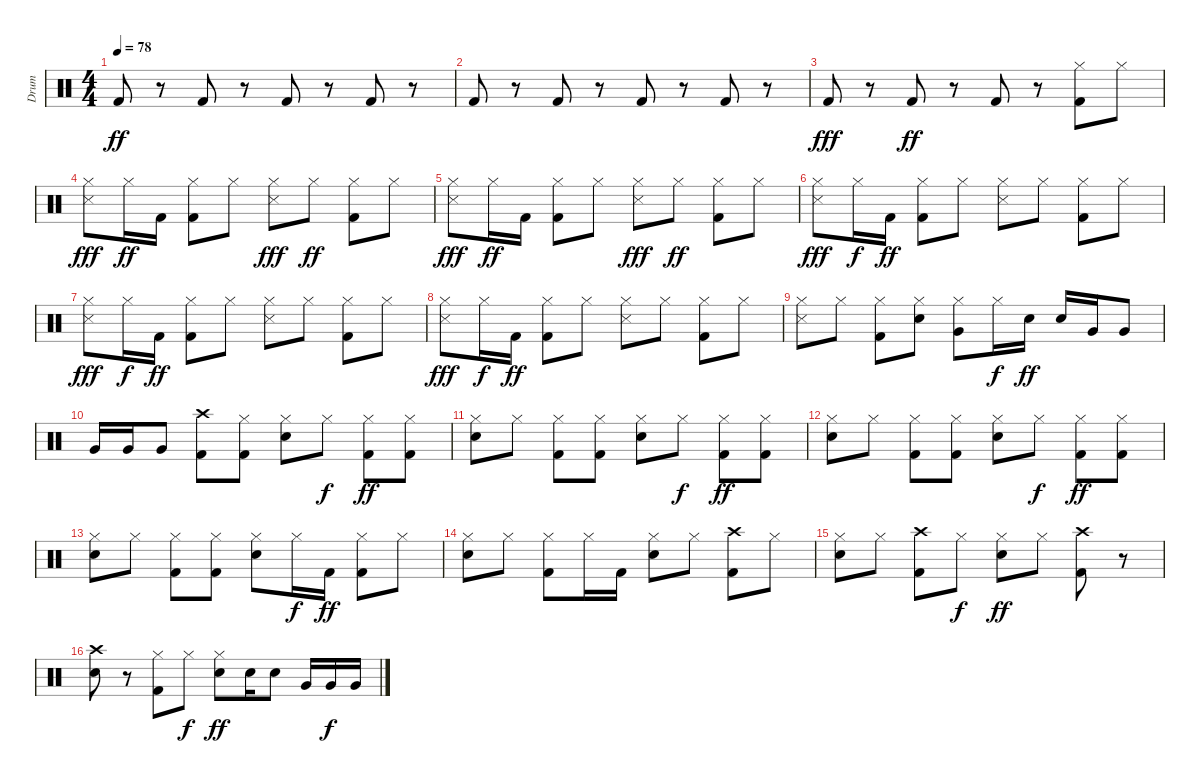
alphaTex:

\track ("Drum" "Drum") {instrument percussion}
\staff {score}
\articulation defaults
\ts (4 4)
\tempo 78
\clef neutral
\ks c "Kick (hit) 2".8{dy ff}
r.8 "Kick (hit) 2".8 r.8 "Kick (hit) 2".8 r.8 "Kick (hit) 2".8 r.8 |
"Kick (hit) 2".8 r.8 "Kick (hit) 2".8 r.8 "Kick (hit) 2".8 r.8 "Kick (hit) 2".8 r.8 |
"Kick (hit) 2".8{dy fff} r.8 "Kick (hit) 2".8{dy ff} r.8 "Kick (hit) 2".8 r.8 ("Kick (hit) 2" "Hi-Hat (closed)").8 "Hi-Hat (closed)".8 |
("Snare (side stick) 3" "Hi-Hat (closed)").8{dy fff} "Hi-Hat (closed)".16{dy ff} "Kick (hit) 2".16 ("Kick (hit) 2" "Hi-Hat (closed)").8 "Hi-Hat (closed)".8 ("Snare (side stick) 3" "Hi-Hat (closed)").8{dy fff} "Hi-Hat (closed)".8{dy ff} ("Kick (hit) 2" "Hi-Hat (closed)").8 "Hi-Hat (closed)".8 |
("Snare (side stick) 3" "Hi-Hat (closed)").8{dy fff} "Hi-Hat (closed)".16{dy ff} "Kick (hit) 2".16 ("Kick (hit) 2" "Hi-Hat (closed)").8 "Hi-Hat (closed)".8 ("Snare (side stick) 3" "Hi-Hat (closed)").8{dy fff} "Hi-Hat (closed)".8{dy ff} ("Kick (hit) 2" "Hi-Hat (closed)").8 "Hi-Hat (closed)".8 |
("Snare (side stick) 3" "Hi-Hat (closed)").8{dy fff} "Hi-Hat (closed)".16{dy f} "Kick (hit) 2".16{dy ff} ("Kick (hit) 2" "Hi-Hat (closed)").8 "Hi-Hat (closed)".8 ("Snare (side stick) 3" "Hi-Hat (closed)").8 "Hi-Hat (closed)".8 ("Kick (hit) 2" "Hi-Hat (closed)").8 "Hi-Hat (closed)".8 |
("Snare (side stick) 3" "Hi-Hat (closed)").8{dy fff} "Hi-Hat (closed)".16{dy f} "Kick (hit) 2".16{dy ff} ("Kick (hit) 2" "Hi-Hat (closed)").8 "Hi-Hat (closed)".8 ("Snare (side stick) 3" "Hi-Hat (closed)").8 "Hi-Hat (closed)".8 ("Kick (hit) 2" "Hi-Hat (closed)").8 "Hi-Hat (closed)".8 |
("Snare (side stick) 3" "Hi-Hat (closed)").8{dy fff} "Hi-Hat (closed)".16{dy f} "Kick (hit) 2".16{dy ff} ("Kick (hit) 2" "Hi-Hat (closed)").8 "Hi-Hat (closed)".8 ("Snare (side stick) 3" "Hi-Hat (closed)").8 "Hi-Hat (closed)".8 ("Kick (hit) 2" "Hi-Hat (closed)").8 "Hi-Hat (closed)".8 |
("Hi-Hat (closed)" "Snare (side stick) 3").8 "Hi-Hat (closed)".8 ("Kick (hit) 2" "Hi-Hat (closed)").8 ("Snare (hit) 2" "Hi-Hat (closed)").8 ("Hi-Hat (closed)" "Very Low Tom (hit)").8 "Hi-Hat (closed)".16{dy f} "Snare (hit) 2".16{dy ff} "Snare (hit) 2".16 "Very Low Tom (hit)".16 "Very Low Tom (hit)".8 |
"Very Low Tom (hit)".16 "Very Low Tom (hit)".16 "Very Low Tom (hit)".8 ("Kick (hit) 2" "Crash high (hit)").8 ("Kick (hit) 2" "Hi-Hat (closed)").8 ("Snare (hit) 2" "Hi-Hat (closed)").8 "Hi-Hat (closed)".8{dy f} ("Kick (hit) 2" "Hi-Hat (closed)").8{dy ff} ("Kick (hit) 2" "Hi-Hat (closed)").8 |
("Snare (hit) 2" "Hi-Hat (closed)").8 "Hi-Hat (closed)".8 ("Kick (hit) 2" "Hi-Hat (closed)").8 ("Kick (hit) 2" "Hi-Hat (closed)").8 ("Snare (hit) 2" "Hi-Hat (closed)").8 "Hi-Hat (closed)".8{dy f} ("Kick (hit) 2" "Hi-Hat (closed)").8{dy ff} ("Kick (hit) 2" "Hi-Hat (closed)").8 |
("Snare (hit) 2" "Hi-Hat (closed)").8 "Hi-Hat (closed)".8 ("Kick (hit) 2" "Hi-Hat (closed)").8 ("Kick (hit) 2" "Hi-Hat (closed)").8 ("Snare (hit) 2" "Hi-Hat (closed)").8 "Hi-Hat (closed)".8{dy f} ("Kick (hit) 2" "Hi-Hat (closed)").8{dy ff} ("Kick (hit) 2" "Hi-Hat (closed)").8 |
("Snare (hit) 2" "Hi-Hat (closed)").8 "Hi-Hat (closed)".8 ("Kick (hit) 2" "Hi-Hat (closed)").8 ("Kick (hit) 2" "Hi-Hat (closed)").8 ("Snare (hit) 2" "Hi-Hat (closed)").8 "Hi-Hat (closed)".16{dy f} "Kick (hit) 2".16{dy ff} ("Kick (hit) 2" "Hi-Hat (closed)").8 "Hi-Hat (closed)".8 |
("Snare (hit) 2" "Hi-Hat (closed)").8 "Hi-Hat (closed)".8 ("Kick (hit) 2" "Hi-Hat (closed)").8 "Hi-Hat (closed)".16 "Kick (hit) 2".16 ("Snare (hit) 2" "Hi-Hat (closed)").8 "Hi-Hat (closed)".8 ("Kick (hit) 2" "Crash high (hit)").8 "Hi-Hat (closed)".8 |
("Snare (hit) 2" "Hi-Hat (closed)").8 "Hi-Hat (closed)".8 ("Kick (hit) 2" "Crash high (hit)").8 "Hi-Hat (closed)".8{dy f} ("Snare (hit) 2" "Hi-Hat (closed)").8{dy ff} "Hi-Hat (closed)".8 ("Kick (hit) 2" "Crash high (hit)").8 r.8 |
("Snare (hit) 2" "Crash high (hit)").8 r.8 ("Kick (hit) 2" "Hi-Hat (closed)").8 "Hi-Hat (closed)".8{dy f} ("Snare (hit) 2" "Hi-Hat (closed)").8{dy ff} "Snare (hit) 2".16 "Snare (hit) 2".8 "Very Low Tom (hit)".16 "Very Low Tom (hit)".16{dy f} "Very Low Tom (hit)".16
